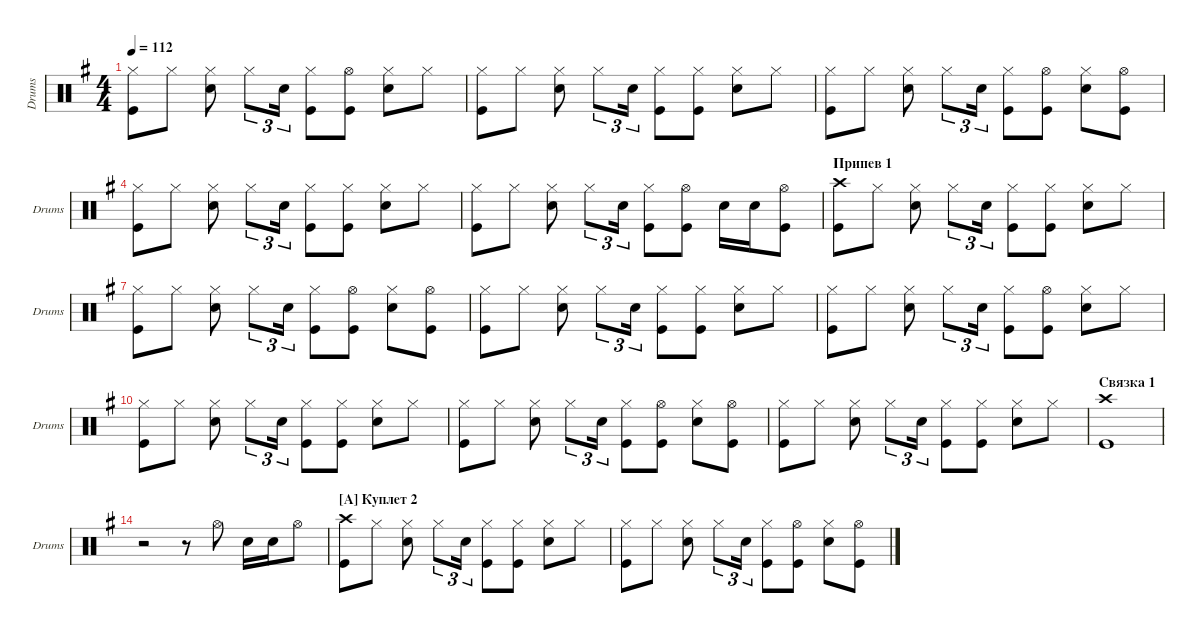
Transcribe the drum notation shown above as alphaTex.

\defaultSystemsLayout 4
\hideDynamics
\bracketExtendMode groupsimilarinstruments
\singleTrackTrackNamePolicy allsystems
\multiTrackTrackNamePolicy allsystems
\otherSystemsTrackNameOrientation horizontal
\defaultBarNumberDisplay FirstOfSystem
\track ("Drums" "Drums") {instrument percussion}
\staff {score}
\articulation defaults
\ts (4 4)
\tempo 112
\clef neutral
\ks eminor
("Kick (hit)" "Hi-Hat (closed)").8{dy mf} "Hi-Hat (closed)".8 ("Hi-Hat (closed)" "Snare (hit) 2").8 "Hi-Hat (closed)".8{tu (3 2)} "Snare (hit) 2".16{tu (3 2)} ("Hi-Hat (closed)" "Kick (hit)").8 ("Hi-Hat (open)" "Kick (hit)").8 ("Hi-Hat (closed)" "Snare (hit) 2").8 "Hi-Hat (closed)".8 |
("Kick (hit)" "Hi-Hat (closed)").8 "Hi-Hat (closed)".8 ("Hi-Hat (closed)" "Snare (hit) 2").8 "Hi-Hat (closed)".8{tu (3 2)} "Snare (hit) 2".16{tu (3 2)} ("Hi-Hat (closed)" "Kick (hit)").8 ("Hi-Hat (closed)" "Kick (hit)").8 ("Hi-Hat (closed)" "Snare (hit) 2").8 "Hi-Hat (closed)".8 |
("Kick (hit)" "Hi-Hat (closed)").8 "Hi-Hat (closed)".8 ("Hi-Hat (closed)" "Snare (hit) 2").8 "Hi-Hat (closed)".8{tu (3 2)} "Snare (hit) 2".16{tu (3 2)} ("Hi-Hat (closed)" "Kick (hit)").8 ("Hi-Hat (open)" "Kick (hit)").8 ("Hi-Hat (closed)" "Snare (hit) 2").8 ("Hi-Hat (open)" "Kick (hit)").8 |
("Kick (hit)" "Hi-Hat (closed)").8 "Hi-Hat (closed)".8 ("Hi-Hat (closed)" "Snare (hit) 2").8 "Hi-Hat (closed)".8{tu (3 2)} "Snare (hit) 2".16{tu (3 2)} ("Hi-Hat (closed)" "Kick (hit)").8 ("Hi-Hat (closed)" "Kick (hit)").8 ("Hi-Hat (closed)" "Snare (hit) 2").8 "Hi-Hat (closed)".8 |
("Kick (hit)" "Hi-Hat (closed)").8 "Hi-Hat (closed)".8 ("Hi-Hat (closed)" "Snare (hit) 2").8 "Hi-Hat (closed)".8{tu (3 2)} "Snare (hit) 2".16{tu (3 2)} ("Hi-Hat (closed)" "Kick (hit)").8 ("Hi-Hat (open)" "Kick (hit)").8 "Snare (hit) 2".16 "Snare (hit) 2".16 ("Hi-Hat (open)" "Kick (hit)").8 |
\section ("" "Припев 1")
("Kick (hit)" "Crash high (hit)").8 "Hi-Hat (closed)".8 ("Hi-Hat (closed)" "Snare (hit) 2").8 "Hi-Hat (closed)".8{tu (3 2)} "Snare (hit) 2".16{tu (3 2)} ("Hi-Hat (closed)" "Kick (hit)").8 ("Hi-Hat (closed)" "Kick (hit)").8 ("Hi-Hat (closed)" "Snare (hit) 2").8 "Hi-Hat (closed)".8 |
("Kick (hit)" "Hi-Hat (closed)").8 "Hi-Hat (closed)".8 ("Hi-Hat (closed)" "Snare (hit) 2").8 "Hi-Hat (closed)".8{tu (3 2)} "Snare (hit) 2".16{tu (3 2)} ("Hi-Hat (closed)" "Kick (hit)").8 ("Hi-Hat (open)" "Kick (hit)").8 ("Hi-Hat (closed)" "Snare (hit) 2").8 ("Hi-Hat (open)" "Kick (hit)").8 |
("Kick (hit)" "Hi-Hat (closed)").8 "Hi-Hat (closed)".8 ("Hi-Hat (closed)" "Snare (hit) 2").8 "Hi-Hat (closed)".8{tu (3 2)} "Snare (hit) 2".16{tu (3 2)} ("Hi-Hat (closed)" "Kick (hit)").8 ("Hi-Hat (closed)" "Kick (hit)").8 ("Hi-Hat (closed)" "Snare (hit) 2").8 "Hi-Hat (closed)".8 |
("Kick (hit)" "Hi-Hat (closed)").8 "Hi-Hat (closed)".8 ("Hi-Hat (closed)" "Snare (hit) 2").8 "Hi-Hat (closed)".8{tu (3 2)} "Snare (hit) 2".16{tu (3 2)} ("Hi-Hat (closed)" "Kick (hit)").8 ("Hi-Hat (open)" "Kick (hit)").8 ("Hi-Hat (closed)" "Snare (hit) 2").8 "Hi-Hat (closed)".8 |
("Kick (hit)" "Hi-Hat (closed)").8 "Hi-Hat (closed)".8 ("Hi-Hat (closed)" "Snare (hit) 2").8 "Hi-Hat (closed)".8{tu (3 2)} "Snare (hit) 2".16{tu (3 2)} ("Hi-Hat (closed)" "Kick (hit)").8 ("Hi-Hat (closed)" "Kick (hit)").8 ("Hi-Hat (closed)" "Snare (hit) 2").8 "Hi-Hat (closed)".8 |
("Kick (hit)" "Hi-Hat (closed)").8 "Hi-Hat (closed)".8 ("Hi-Hat (closed)" "Snare (hit) 2").8 "Hi-Hat (closed)".8{tu (3 2)} "Snare (hit) 2".16{tu (3 2)} ("Hi-Hat (closed)" "Kick (hit)").8 ("Hi-Hat (open)" "Kick (hit)").8 ("Hi-Hat (closed)" "Snare (hit) 2").8 ("Hi-Hat (open)" "Kick (hit)").8 |
("Kick (hit)" "Hi-Hat (closed)").8 "Hi-Hat (closed)".8 ("Hi-Hat (closed)" "Snare (hit) 2").8 "Hi-Hat (closed)".8{tu (3 2)} "Snare (hit) 2".16{tu (3 2)} ("Hi-Hat (closed)" "Kick (hit)").8 ("Hi-Hat (closed)" "Kick (hit)").8 ("Hi-Hat (closed)" "Snare (hit) 2").8 "Hi-Hat (closed)".8 |
\section ("" "Связка 1")
("Kick (hit)" "Crash high (hit)").1 |
r.2 r.8 "Hi-Hat (open)".8 "Snare (hit) 2".16 "Snare (hit) 2".16 "Hi-Hat (open)".8 |
\section ("A" "Куплет 2")
("Kick (hit)" "Crash high (hit)").8 "Hi-Hat (closed)".8 ("Hi-Hat (closed)" "Snare (hit) 2").8 "Hi-Hat (closed)".8{tu (3 2)} "Snare (hit) 2".16{tu (3 2)} ("Hi-Hat (closed)" "Kick (hit)").8 ("Hi-Hat (closed)" "Kick (hit)").8 ("Hi-Hat (closed)" "Snare (hit) 2").8 "Hi-Hat (closed)".8 |
("Kick (hit)" "Hi-Hat (closed)").8 "Hi-Hat (closed)".8 ("Hi-Hat (closed)" "Snare (hit) 2").8 "Hi-Hat (closed)".8{tu (3 2)} "Snare (hit) 2".16{tu (3 2)} ("Hi-Hat (closed)" "Kick (hit)").8 ("Hi-Hat (open)" "Kick (hit)").8 ("Hi-Hat (closed)" "Snare (hit) 2").8 ("Hi-Hat (open)" "Kick (hit)").8
